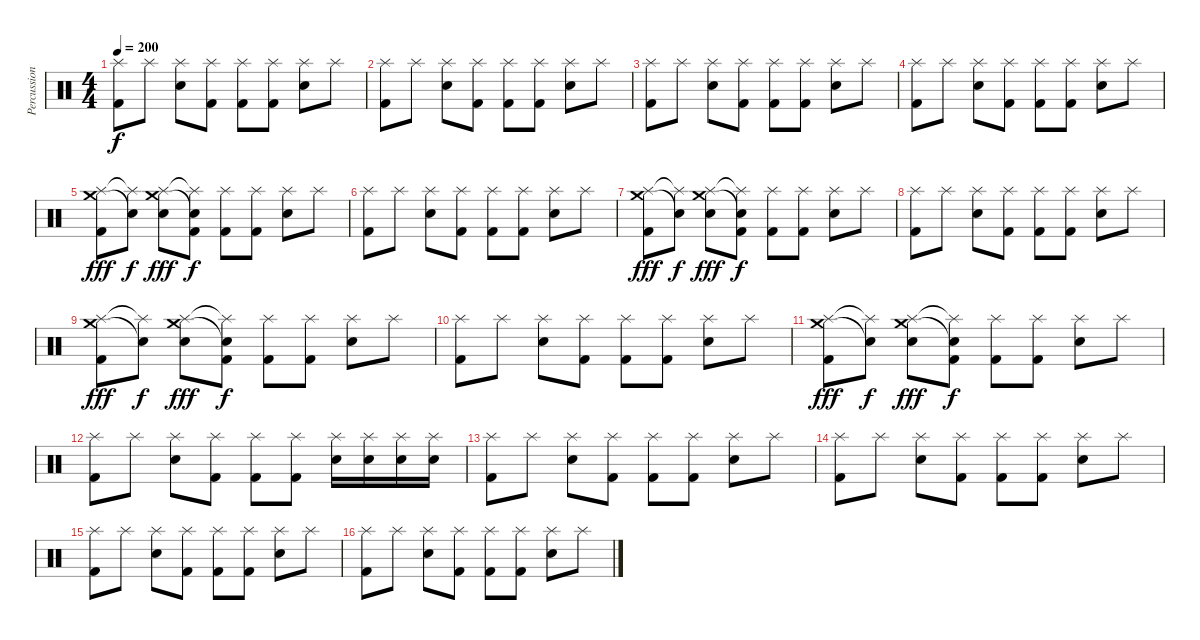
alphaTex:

\track ("Percussions" "Percussion") {instrument percussion}
\staff {score}
\articulation defaults
\ts (4 4)
\tempo 200
\clef neutral
\ks c
("Splash (hit)" "Kick (hit) 2").8{dy f} "Splash (hit)".8 ("Splash (hit)" "Electric Snare (hit)").8 ("Splash (hit)" "Kick (hit) 2").8 ("Splash (hit)" "Kick (hit) 2").8 ("Splash (hit)" "Kick (hit) 2").8 ("Splash (hit)" "Electric Snare (hit)").8 "Splash (hit)".8 |
("Splash (hit)" "Kick (hit) 2").8 "Splash (hit)".8 ("Splash (hit)" "Electric Snare (hit)").8 ("Splash (hit)" "Kick (hit) 2").8 ("Splash (hit)" "Kick (hit) 2").8 ("Splash (hit)" "Kick (hit) 2").8 ("Splash (hit)" "Electric Snare (hit)").8 "Splash (hit)".8 |
("Splash (hit)" "Kick (hit) 2").8 "Splash (hit)".8 ("Splash (hit)" "Electric Snare (hit)").8 ("Splash (hit)" "Kick (hit) 2").8 ("Splash (hit)" "Kick (hit) 2").8 ("Splash (hit)" "Kick (hit) 2").8 ("Splash (hit)" "Electric Snare (hit)").8 "Splash (hit)".8 |
("Splash (hit)" "Kick (hit) 2").8 "Splash (hit)".8 ("Splash (hit)" "Electric Snare (hit)").8 ("Splash (hit)" "Kick (hit) 2").8 ("Splash (hit)" "Kick (hit) 2").8 ("Splash (hit)" "Kick (hit) 2").8 ("Splash (hit)" "Electric Snare (hit)").8 "Splash (hit)".8 |
("Splash (hit)" "Crash medium (hit)" "Kick (hit) 2").8{dy fff} ("Splash (hit)"{t} "Snare (hit)"{t}).8{dy f} ("Splash (hit)" "Crash medium (hit)" "Electric Snare (hit)").8{dy fff} ("Splash (hit)"{t} "Snare (hit)"{t} "Kick (hit) 2").8{dy f} ("Splash (hit)" "Kick (hit) 2").8 ("Splash (hit)" "Kick (hit) 2").8 ("Splash (hit)" "Electric Snare (hit)").8 "Splash (hit)".8 |
("Splash (hit)" "Kick (hit) 2").8 "Splash (hit)".8 ("Splash (hit)" "Electric Snare (hit)").8 ("Splash (hit)" "Kick (hit) 2").8 ("Splash (hit)" "Kick (hit) 2").8 ("Splash (hit)" "Kick (hit) 2").8 ("Splash (hit)" "Electric Snare (hit)").8 "Splash (hit)".8 |
("Splash (hit)" "Crash medium (hit)" "Kick (hit) 2").8{dy fff} ("Splash (hit)"{t} "Snare (hit)"{t}).8{dy f} ("Splash (hit)" "Crash medium (hit)" "Electric Snare (hit)").8{dy fff} ("Splash (hit)"{t} "Snare (hit)"{t} "Kick (hit) 2").8{dy f} ("Splash (hit)" "Kick (hit) 2").8 ("Splash (hit)" "Kick (hit) 2").8 ("Splash (hit)" "Electric Snare (hit)").8 "Splash (hit)".8 |
("Splash (hit)" "Kick (hit) 2").8 "Splash (hit)".8 ("Splash (hit)" "Electric Snare (hit)").8 ("Splash (hit)" "Kick (hit) 2").8 ("Splash (hit)" "Kick (hit) 2").8 ("Splash (hit)" "Kick (hit) 2").8 ("Splash (hit)" "Electric Snare (hit)").8 "Splash (hit)".8 |
("Splash (hit)" "Crash medium (hit)" "Kick (hit) 2").8{dy fff} ("Splash (hit)"{t} "Snare (hit)"{t}).8{dy f} ("Splash (hit)" "Crash medium (hit)" "Electric Snare (hit)").8{dy fff} ("Splash (hit)"{t} "Snare (hit)"{t} "Kick (hit) 2").8{dy f} ("Splash (hit)" "Kick (hit) 2").8 ("Splash (hit)" "Kick (hit) 2").8 ("Splash (hit)" "Electric Snare (hit)").8 "Splash (hit)".8 |
("Splash (hit)" "Kick (hit) 2").8 "Splash (hit)".8 ("Splash (hit)" "Electric Snare (hit)").8 ("Splash (hit)" "Kick (hit) 2").8 ("Splash (hit)" "Kick (hit) 2").8 ("Splash (hit)" "Kick (hit) 2").8 ("Splash (hit)" "Electric Snare (hit)").8 "Splash (hit)".8 |
("Splash (hit)" "Crash medium (hit)" "Kick (hit) 2").8{dy fff} ("Splash (hit)"{t} "Snare (hit)"{t}).8{dy f} ("Splash (hit)" "Crash medium (hit)" "Electric Snare (hit)").8{dy fff} ("Splash (hit)"{t} "Snare (hit)"{t} "Kick (hit) 2").8{dy f} ("Splash (hit)" "Kick (hit) 2").8 ("Splash (hit)" "Kick (hit) 2").8 ("Splash (hit)" "Electric Snare (hit)").8 "Splash (hit)".8 |
("Splash (hit)" "Kick (hit) 2").8 "Splash (hit)".8 ("Splash (hit)" "Electric Snare (hit)").8 ("Splash (hit)" "Kick (hit) 2").8 ("Splash (hit)" "Kick (hit) 2").8 ("Splash (hit)" "Kick (hit) 2").8 ("Splash (hit)" "Electric Snare (hit)").16 ("Splash (hit)" "Electric Snare (hit)").16 ("Splash (hit)" "Electric Snare (hit)").16 ("Splash (hit)" "Electric Snare (hit)").16 |
("Splash (hit)" "Kick (hit) 2").8 "Splash (hit)".8 ("Splash (hit)" "Electric Snare (hit)").8 ("Splash (hit)" "Kick (hit) 2").8 ("Splash (hit)" "Kick (hit) 2").8 ("Splash (hit)" "Kick (hit) 2").8 ("Splash (hit)" "Electric Snare (hit)").8 "Splash (hit)".8 |
("Splash (hit)" "Kick (hit) 2").8 "Splash (hit)".8 ("Splash (hit)" "Electric Snare (hit)").8 ("Splash (hit)" "Kick (hit) 2").8 ("Splash (hit)" "Kick (hit) 2").8 ("Splash (hit)" "Kick (hit) 2").8 ("Splash (hit)" "Electric Snare (hit)").8 "Splash (hit)".8 |
("Splash (hit)" "Kick (hit) 2").8 "Splash (hit)".8 ("Splash (hit)" "Electric Snare (hit)").8 ("Splash (hit)" "Kick (hit) 2").8 ("Splash (hit)" "Kick (hit) 2").8 ("Splash (hit)" "Kick (hit) 2").8 ("Splash (hit)" "Electric Snare (hit)").8 "Splash (hit)".8 |
("Splash (hit)" "Kick (hit) 2").8 "Splash (hit)".8 ("Splash (hit)" "Electric Snare (hit)").8 ("Splash (hit)" "Kick (hit) 2").8 ("Splash (hit)" "Kick (hit) 2").8 ("Splash (hit)" "Kick (hit) 2").8 ("Splash (hit)" "Electric Snare (hit)").8 "Splash (hit)".8
